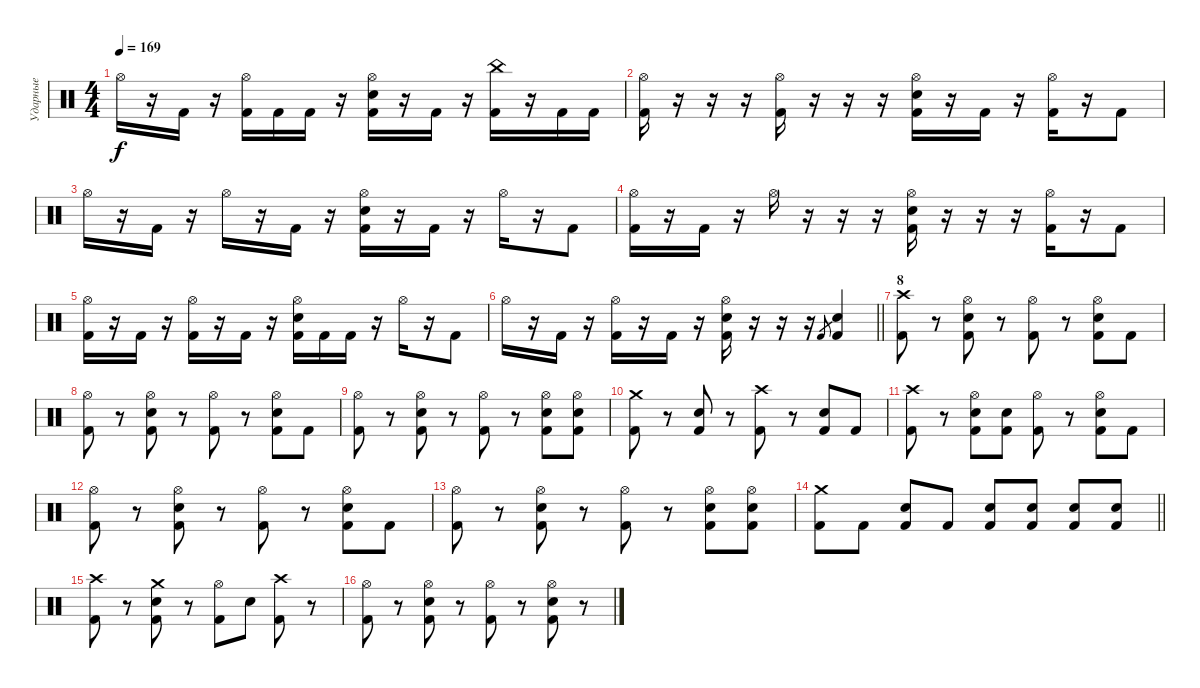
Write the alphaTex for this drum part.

\track ("Ударные" "Ударные") {instrument percussion}
\staff {score}
\articulation defaults
\ts (4 4)
\tempo 169
\clef neutral
\ks c "Hi-Hat (open)".16{dy f}
r.16 "Kick (hit) 2".16 r.16 ("Hi-Hat (open)" "Kick (hit) 2").16 "Kick (hit) 2".16 "Kick (hit) 2".16 r.16 ("Hi-Hat (open)" "Snare (hit) 2" "Kick (hit) 2").16 r.16 "Kick (hit) 2".16 r.16 ("China (hit)" "Kick (hit) 2").16 r.16 "Kick (hit) 2".16 "Kick (hit) 2".16 |
("Hi-Hat (open)" "Kick (hit) 2").16 r.16 r.16 r.16 ("Hi-Hat (open)" "Kick (hit) 2").16 r.16 r.16 r.16 ("Hi-Hat (open)" "Snare (hit) 2" "Kick (hit) 2").16 r.16 "Kick (hit) 2".16 r.16 ("Hi-Hat (open)" "Kick (hit) 2").16 r.16 "Kick (hit) 2".8 |
"Hi-Hat (open)".16 r.16 "Kick (hit) 2".16 r.16 "Hi-Hat (open)".16 r.16 "Kick (hit) 2".16 r.16 ("Hi-Hat (open)" "Snare (hit) 2" "Kick (hit) 2").16 r.16 "Kick (hit) 2".16 r.16 "Hi-Hat (open)".16 r.16 "Kick (hit) 2".8 |
("Hi-Hat (open)" "Kick (hit) 2").16 r.16 "Kick (hit) 2".16 r.16 "Hi-Hat (open)".16 r.16 r.16 r.16 ("Hi-Hat (open)" "Snare (hit) 2" "Kick (hit) 2").16 r.16 r.16 r.16 ("Hi-Hat (open)" "Kick (hit) 2").16 r.16 "Kick (hit) 2".8 |
("Hi-Hat (open)" "Kick (hit) 2").16 r.16 "Kick (hit) 2".16 r.16 ("Hi-Hat (open)" "Kick (hit) 2").16 r.16 "Kick (hit) 2".16 r.16 ("Hi-Hat (open)" "Snare (hit) 2" "Kick (hit) 2").16 "Kick (hit) 2".16 "Kick (hit) 2".16 r.16 "Hi-Hat (open)".16 r.16 "Kick (hit) 2".8 |
\barLineRight lightlight "Hi-Hat (open)".16
r.16 "Kick (hit) 2".16 r.16 ("Hi-Hat (open)" "Kick (hit) 2").16 r.16 "Kick (hit) 2".16 r.16 ("Hi-Hat (open)" "Snare (hit) 2" "Kick (hit) 2").16 r.16 r.16 r.16 "Kick (hit) 2".8{gr} ("Snare (hit) 2" "Kick (hit) 2").4 |
\section ("" "8")
("Kick (hit) 2" "Crash high (hit)").8 r.8 ("Snare (hit) 2" "Kick (hit) 2" "Hi-Hat (open)").8 r.8 ("Kick (hit) 2" "Hi-Hat (open)").8 r.8 ("Snare (hit) 2" "Kick (hit) 2" "Hi-Hat (open)").8 "Kick (hit) 2".8 |
("Kick (hit) 2" "Hi-Hat (open)").8 r.8 ("Snare (hit) 2" "Kick (hit) 2" "Hi-Hat (open)").8 r.8 ("Kick (hit) 2" "Hi-Hat (open)").8 r.8 ("Snare (hit) 2" "Kick (hit) 2" "Hi-Hat (open)").8 "Kick (hit) 2".8 |
("Kick (hit) 2" "Hi-Hat (open)").8 r.8 ("Snare (hit) 2" "Kick (hit) 2" "Hi-Hat (open)").8 r.8 ("Kick (hit) 2" "Hi-Hat (open)").8 r.8 ("Snare (hit) 2" "Kick (hit) 2" "Hi-Hat (open)").8 ("Snare (hit) 2" "Kick (hit) 2" "Hi-Hat (open)").8 |
("Kick (hit) 2" "Crash medium (hit)").8 r.8 ("Snare (hit) 2" "Kick (hit) 2").8 r.8 ("Kick (hit) 2" "Crash high (hit)").8 r.8 ("Snare (hit) 2" "Kick (hit) 2").8 "Kick (hit) 2".8 |
("Kick (hit) 2" "Crash high (hit)").8 r.8 ("Snare (hit) 2" "Kick (hit) 2" "Hi-Hat (open)").8 ("Snare (hit) 2" "Kick (hit) 2").8 ("Kick (hit) 2" "Hi-Hat (open)").8 r.8 ("Snare (hit) 2" "Kick (hit) 2" "Hi-Hat (open)").8 "Kick (hit) 2".8 |
("Kick (hit) 2" "Hi-Hat (open)").8 r.8 ("Snare (hit) 2" "Kick (hit) 2" "Hi-Hat (open)").8 r.8 ("Kick (hit) 2" "Hi-Hat (open)").8 r.8 ("Snare (hit) 2" "Kick (hit) 2" "Hi-Hat (open)").8 "Kick (hit) 2".8 |
("Kick (hit) 2" "Hi-Hat (open)").8 r.8 ("Snare (hit) 2" "Kick (hit) 2" "Hi-Hat (open)").8 r.8 ("Kick (hit) 2" "Hi-Hat (open)").8 r.8 ("Snare (hit) 2" "Kick (hit) 2" "Hi-Hat (open)").8 ("Snare (hit) 2" "Kick (hit) 2" "Hi-Hat (open)").8 |
\barLineRight lightlight
("Kick (hit) 2" "Crash medium (hit)").8 "Kick (hit) 2".8 ("Snare (hit) 2" "Kick (hit) 2").8 "Kick (hit) 2".8 ("Snare (hit) 2" "Kick (hit) 2").8 ("Snare (hit) 2" "Kick (hit) 2").8 ("Snare (hit) 2" "Kick (hit) 2").8 ("Snare (hit) 2" "Kick (hit) 2").8 |
("Kick (hit) 2" "Crash high (hit)").8 r.8 ("Snare (hit) 2" "Kick (hit) 2" "Crash medium (hit)").8 r.8 ("Kick (hit) 2" "Hi-Hat (open)").8 "Snare (hit) 2".8 ("Kick (hit) 2" "Crash high (hit)").8 r.8 |
("Kick (hit) 2" "Hi-Hat (open)").8 r.8 ("Snare (hit) 2" "Kick (hit) 2" "Hi-Hat (open)").8 r.8 ("Kick (hit) 2" "Hi-Hat (open)").8 r.8 ("Snare (hit) 2" "Kick (hit) 2" "Hi-Hat (open)").8 r.8
